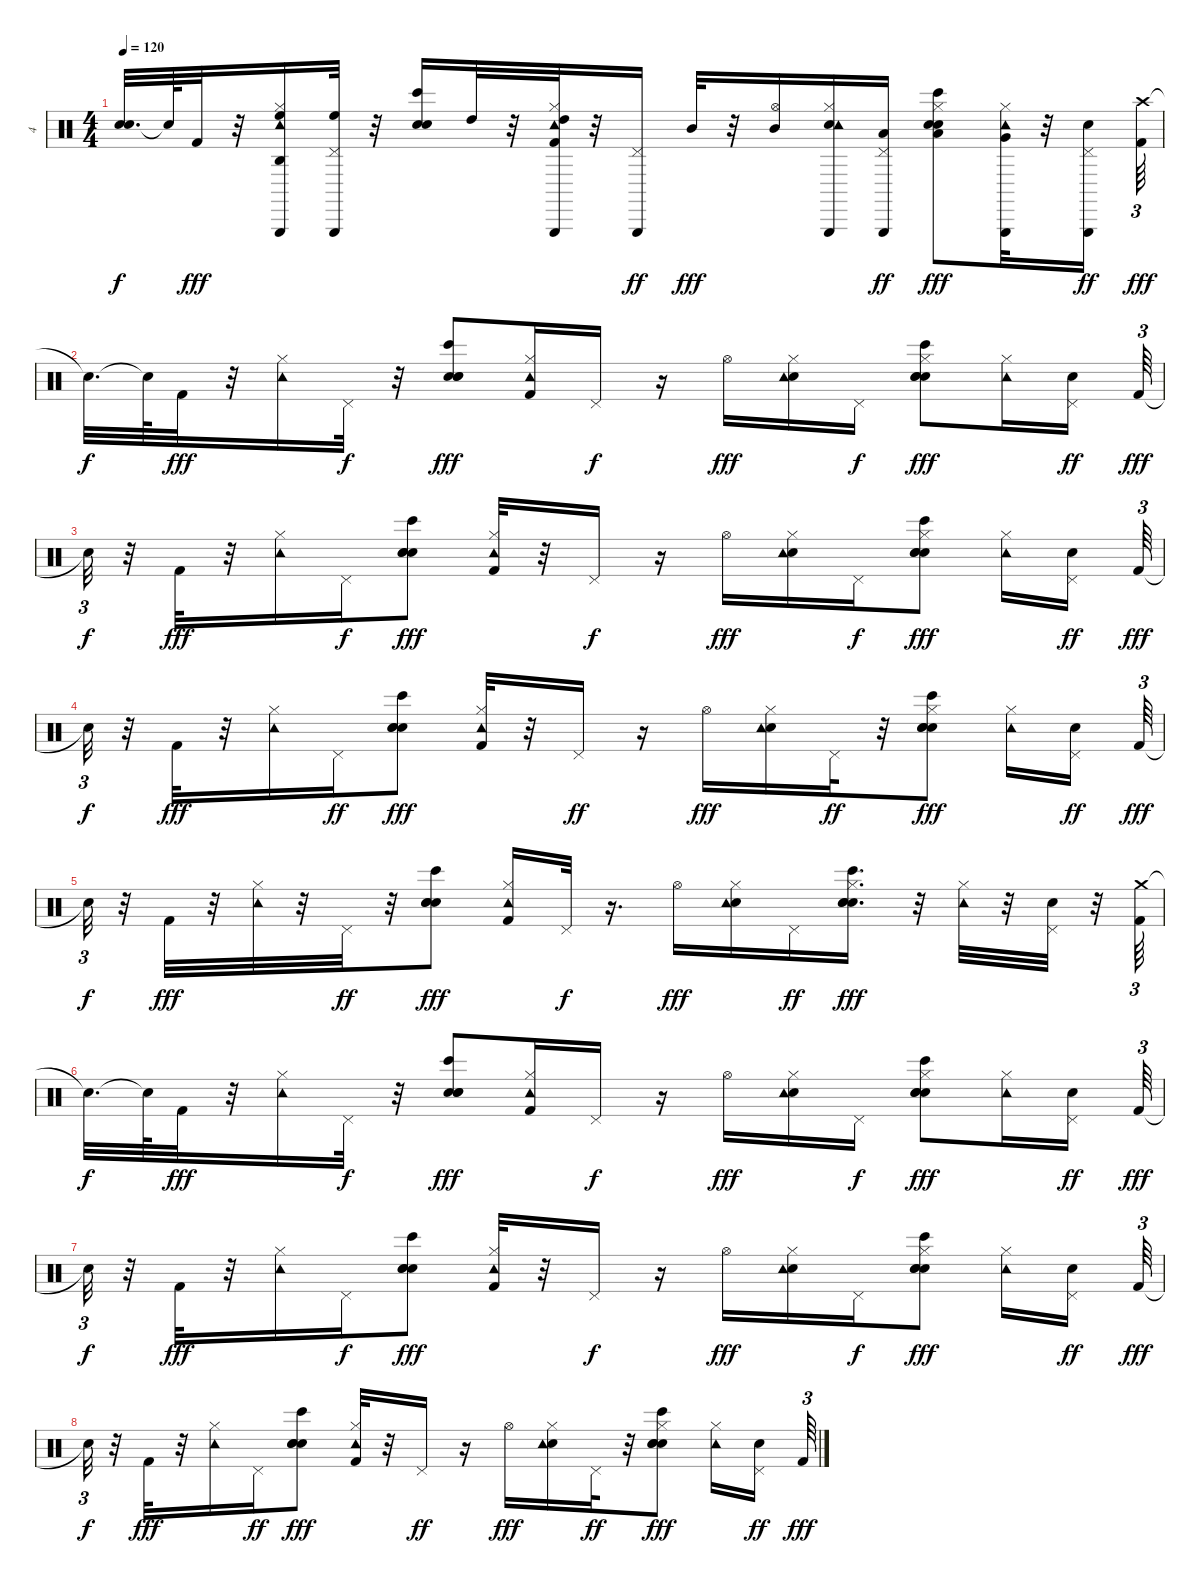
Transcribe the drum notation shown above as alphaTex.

\track ("4" "4") {instrument percussion}
\staff {score}
\articulation defaults
\ts (4 4)
\tempo 120
\clef neutral
\ks c
("Snare (hit)"{t} "Snare (hit)"{t}).32{d dy f} "Snare (hit)"{t}.64 "Kick (hit) 2".32{dy fff} r.32 ("Hi-Hat (closed)" "High Floor Tom (hit)" "Triangle (hit)" "Tambourine (hit)" "Agogo high (hit)").16 ("Pedal Hi-Hat (hit)" "High Floor Tom (hit)" "Triangle (hit)").32 r.32 ("Snare (hit) 2" "Bongo High (hit)" "Hand Clap (hit)").16 "High Tom (hit)".32 r.32 ("Hi-Hat (closed)" "High Tom (hit)" "Triangle (hit)" "Tambourine (hit)" "Kick (hit) 2").32 r.32 ("Pedal Hi-Hat (hit)" "Triangle (hit)").16{dy ff} "Mid Tom (hit)".32{dy fff} r.32 ("Mid Tom (hit)" "Hi-Hat (open)").16 ("Snare (hit) 2" "Hi-Hat (closed)" "Triangle (hit)" "Tambourine (hit)").16 ("Pedal Hi-Hat (hit)" "Low Tom (hit)" "Triangle (hit)").16{dy ff} ("Snare (hit) 2" "Low Tom (hit)" "Hand Clap (hit)" "Hi-Hat (closed)" "Bongo High (hit)").8{dy fff} ("Hi-Hat (closed)" "Very Low Tom (hit)" "Triangle (hit)" "Tambourine (hit)").32 r.32 ("Pedal Hi-Hat (hit)" "Snare (hit) 2" "Triangle (hit)").16{dy ff} ("Crash high (hit)" "Kick (hit) 2").64{tu (3 2) dy fff} |
"Snare (hit)"{t}.32{d dy f} "Snare (hit)"{t}.64 "Kick (hit) 2".32{dy fff} r.32 ("Hi-Hat (closed)" "Tambourine (hit)").16 "Pedal Hi-Hat (hit)".32{dy f} r.32 ("Snare (hit) 2" "Bongo High (hit)" "Hand Clap (hit)" "Electric Snare (hit)").8{dy fff} ("Hi-Hat (closed)" "Tambourine (hit)" "Kick (hit) 2").16 "Pedal Hi-Hat (hit)".16{dy f} r.16 "Hi-Hat (open)".16{dy fff} ("Hi-Hat (closed)" "Snare (hit) 2" "Tambourine (hit)").16 "Pedal Hi-Hat (hit)".16{dy f} ("Snare (hit) 2" "Hi-Hat (closed)" "Hand Clap (hit)" "Bongo High (hit)" "Electric Snare (hit)").8{dy fff} ("Hi-Hat (closed)" "Tambourine (hit)").16 ("Pedal Hi-Hat (hit)" "Snare (hit) 2").16{dy ff} "Kick (hit) 2".64{tu (3 2) dy fff} |
"Snare (hit)"{t}.32{tu (3 2) dy f} r.32 "Kick (hit) 2".32{dy fff} r.32 ("Hi-Hat (closed)" "Tambourine (hit)").16 "Pedal Hi-Hat (hit)".16{dy f} ("Snare (hit) 2" "Electric Snare (hit)" "Bongo High (hit)" "Hand Clap (hit)").8{dy fff} ("Hi-Hat (closed)" "Kick (hit) 2" "Tambourine (hit)").32 r.32 "Pedal Hi-Hat (hit)".16{dy f} r.16 "Hi-Hat (open)".16{dy fff} ("Snare (hit) 2" "Hi-Hat (closed)" "Tambourine (hit)").16 "Pedal Hi-Hat (hit)".16{dy f} ("Snare (hit) 2" "Hand Clap (hit)" "Hi-Hat (closed)" "Bongo High (hit)" "Electric Snare (hit)").8{dy fff} ("Hi-Hat (closed)" "Tambourine (hit)").16 ("Pedal Hi-Hat (hit)" "Snare (hit) 2").16{dy ff beam splitsecondary} "Kick (hit) 2".64{tu (3 2) dy fff} |
"Snare (hit)"{t}.32{tu (3 2) dy f} r.32 "Kick (hit) 2".32{dy fff} r.32 ("Hi-Hat (closed)" "Tambourine (hit)").16 "Pedal Hi-Hat (hit)".16{dy ff} ("Snare (hit) 2" "Electric Snare (hit)" "Bongo High (hit)" "Hand Clap (hit)").8{dy fff} ("Hi-Hat (closed)" "Kick (hit) 2" "Tambourine (hit)").32 r.32 "Pedal Hi-Hat (hit)".16{dy ff} r.16 "Hi-Hat (open)".16{dy fff} ("Snare (hit) 2" "Hi-Hat (closed)" "Tambourine (hit)").16 "Pedal Hi-Hat (hit)".32{dy ff} r.32 ("Snare (hit) 2" "Electric Snare (hit)" "Hi-Hat (closed)" "Hand Clap (hit)" "Bongo High (hit)").8{dy fff} ("Hi-Hat (closed)" "Tambourine (hit)").16 ("Pedal Hi-Hat (hit)" "Snare (hit) 2").16{dy ff beam splitsecondary} "Kick (hit) 2".64{tu (3 2) dy fff} |
"Snare (hit)"{t}.32{tu (3 2) dy f} r.32 "Kick (hit) 2".32{dy fff} r.32 ("Hi-Hat (closed)" "Tambourine (hit)").32 r.32 "Pedal Hi-Hat (hit)".32{dy ff} r.32 ("Snare (hit) 2" "Electric Snare (hit)" "Bongo High (hit)" "Hand Clap (hit)").8{dy fff} ("Hi-Hat (closed)" "Kick (hit) 2" "Tambourine (hit)").16 "Pedal Hi-Hat (hit)".32{dy f} r.16{d} "Hi-Hat (open)".16{dy fff} ("Snare (hit) 2" "Hi-Hat (closed)" "Tambourine (hit)").16 "Pedal Hi-Hat (hit)".16{dy ff} ("Snare (hit) 2" "Electric Snare (hit)" "Hand Clap (hit)" "Hi-Hat (closed)" "Bongo High (hit)").16{d dy fff} r.32 ("Hi-Hat (closed)" "Tambourine (hit)").32 r.32 ("Pedal Hi-Hat (hit)" "Snare (hit) 2").32 r.32 ("Crash medium (hit)" "Kick (hit) 2").64{tu (3 2)} |
"Snare (hit)"{t}.32{d dy f} "Snare (hit)"{t}.64 "Kick (hit) 2".32{dy fff} r.32 ("Hi-Hat (closed)" "Tambourine (hit)").16 "Pedal Hi-Hat (hit)".32{dy f} r.32 ("Snare (hit) 2" "Bongo High (hit)" "Hand Clap (hit)" "Electric Snare (hit)").8{dy fff} ("Hi-Hat (closed)" "Tambourine (hit)" "Kick (hit) 2").16 "Pedal Hi-Hat (hit)".16{dy f} r.16 "Hi-Hat (open)".16{dy fff} ("Hi-Hat (closed)" "Snare (hit) 2" "Tambourine (hit)").16 "Pedal Hi-Hat (hit)".16{dy f} ("Snare (hit) 2" "Hi-Hat (closed)" "Hand Clap (hit)" "Bongo High (hit)" "Electric Snare (hit)").8{dy fff} ("Hi-Hat (closed)" "Tambourine (hit)").16 ("Pedal Hi-Hat (hit)" "Snare (hit) 2").16{dy ff} "Kick (hit) 2".64{tu (3 2) dy fff} |
"Snare (hit)"{t}.32{tu (3 2) dy f} r.32 "Kick (hit) 2".32{dy fff} r.32 ("Hi-Hat (closed)" "Tambourine (hit)").16 "Pedal Hi-Hat (hit)".16{dy f} ("Snare (hit) 2" "Electric Snare (hit)" "Bongo High (hit)" "Hand Clap (hit)").8{dy fff} ("Hi-Hat (closed)" "Kick (hit) 2" "Tambourine (hit)").32 r.32 "Pedal Hi-Hat (hit)".16{dy f} r.16 "Hi-Hat (open)".16{dy fff} ("Snare (hit) 2" "Hi-Hat (closed)" "Tambourine (hit)").16 "Pedal Hi-Hat (hit)".16{dy f} ("Snare (hit) 2" "Hand Clap (hit)" "Hi-Hat (closed)" "Bongo High (hit)" "Electric Snare (hit)").8{dy fff} ("Hi-Hat (closed)" "Tambourine (hit)").16 ("Pedal Hi-Hat (hit)" "Snare (hit) 2").16{dy ff beam splitsecondary} "Kick (hit) 2".64{tu (3 2) dy fff} |
"Snare (hit)"{t}.32{tu (3 2) dy f} r.32 "Kick (hit) 2".32{dy fff} r.32 ("Hi-Hat (closed)" "Tambourine (hit)").16 "Pedal Hi-Hat (hit)".16{dy ff} ("Snare (hit) 2" "Electric Snare (hit)" "Bongo High (hit)" "Hand Clap (hit)").8{dy fff} ("Hi-Hat (closed)" "Kick (hit) 2" "Tambourine (hit)").32 r.32 "Pedal Hi-Hat (hit)".16{dy ff} r.16 "Hi-Hat (open)".16{dy fff} ("Snare (hit) 2" "Hi-Hat (closed)" "Tambourine (hit)").16 "Pedal Hi-Hat (hit)".32{dy ff} r.32 ("Snare (hit) 2" "Electric Snare (hit)" "Hi-Hat (closed)" "Hand Clap (hit)" "Bongo High (hit)").8{dy fff} ("Hi-Hat (closed)" "Tambourine (hit)").16 ("Pedal Hi-Hat (hit)" "Snare (hit) 2").16{dy ff beam splitsecondary} "Kick (hit) 2".64{tu (3 2) dy fff}
